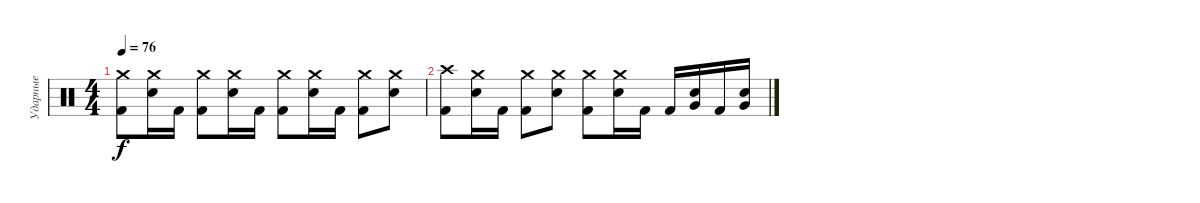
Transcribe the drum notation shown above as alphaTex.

\track ("Ударные" "Ударные") {instrument percussion}
\staff {score}
\articulation defaults
\ts (4 4)
\tempo 76
\clef neutral
\ks c
("Crash medium (hit)" "Kick (hit) 2").8{dy f} ("Crash medium (hit)" "Electric Snare (hit)").16 "Kick (hit) 2".16 ("Crash medium (hit)" "Kick (hit) 2").8 ("Crash medium (hit)" "Electric Snare (hit)").16 "Kick (hit) 2".16 ("Crash medium (hit)" "Kick (hit) 2").8 ("Crash medium (hit)" "Electric Snare (hit)").16 "Kick (hit) 2".16 ("Crash medium (hit)" "Kick (hit) 2").8 ("Crash medium (hit)" "Electric Snare (hit)").8 |
("Crash high (hit)" "Kick (hit) 2").8 ("Crash medium (hit)" "Electric Snare (hit)").16 "Kick (hit) 2".16 ("Crash medium (hit)" "Kick (hit) 2").8 ("Crash medium (hit)" "Electric Snare (hit)").8 ("Crash medium (hit)" "Kick (hit) 2").8 ("Crash medium (hit)" "Electric Snare (hit)").16 "Kick (hit) 2".16 "Kick (hit) 2".16 ("Electric Snare (hit)" "Very Low Tom (hit)").16 "Kick (hit) 2".16 ("Electric Snare (hit)" "Very Low Tom (hit)").16
